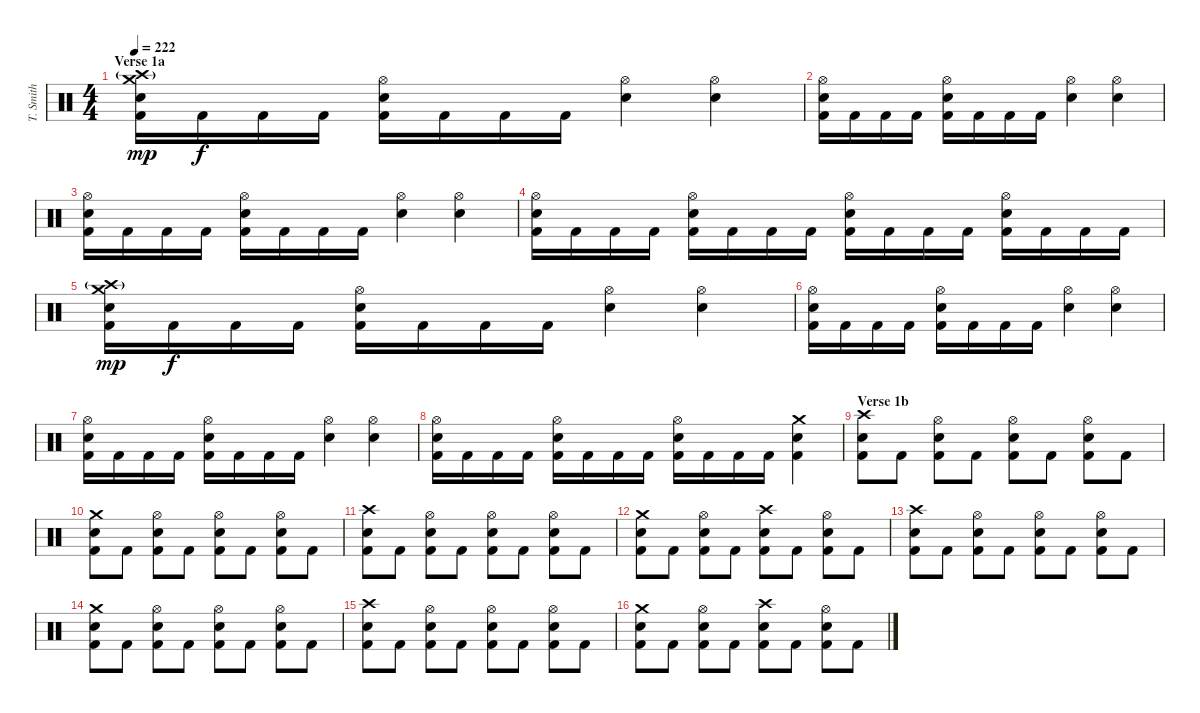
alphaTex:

\track ("T. Smith" "T. Smith") {instrument percussion}
\staff {score}
\articulation defaults
\ts (4 4)
\section ("" "Verse 1a")
\tempo 222
\clef neutral
\ks c
("Crash medium (hit)" "Crash high (hit)"{g} "Electric Snare (hit)" "Kick (hit) 2").16{dy mp} "Kick (hit) 2".16{dy f} "Kick (hit) 2".16 "Kick (hit) 2".16 ("Hi-Hat (open)" "Electric Snare (hit)" "Kick (hit) 2").16 "Kick (hit) 2".16 "Kick (hit) 2".16 "Kick (hit) 2".16 ("Hi-Hat (open)" "Electric Snare (hit)").4 ("Hi-Hat (open)" "Electric Snare (hit)").4 |
("Hi-Hat (open)" "Electric Snare (hit)" "Kick (hit) 2").16 "Kick (hit) 2".16 "Kick (hit) 2".16 "Kick (hit) 2".16 ("Hi-Hat (open)" "Electric Snare (hit)" "Kick (hit) 2").16 "Kick (hit) 2".16 "Kick (hit) 2".16 "Kick (hit) 2".16 ("Hi-Hat (open)" "Electric Snare (hit)").4 ("Hi-Hat (open)" "Electric Snare (hit)").4 |
("Hi-Hat (open)" "Electric Snare (hit)" "Kick (hit) 2").16 "Kick (hit) 2".16 "Kick (hit) 2".16 "Kick (hit) 2".16 ("Hi-Hat (open)" "Electric Snare (hit)" "Kick (hit) 2").16 "Kick (hit) 2".16 "Kick (hit) 2".16 "Kick (hit) 2".16 ("Hi-Hat (open)" "Electric Snare (hit)").4 ("Hi-Hat (open)" "Electric Snare (hit)").4 |
("Hi-Hat (open)" "Electric Snare (hit)" "Kick (hit) 2").16 "Kick (hit) 2".16 "Kick (hit) 2".16 "Kick (hit) 2".16 ("Hi-Hat (open)" "Electric Snare (hit)" "Kick (hit) 2").16 "Kick (hit) 2".16 "Kick (hit) 2".16 "Kick (hit) 2".16 ("Hi-Hat (open)" "Electric Snare (hit)" "Kick (hit) 2").16 "Kick (hit) 2".16 "Kick (hit) 2".16 "Kick (hit) 2".16 ("Hi-Hat (open)" "Electric Snare (hit)" "Kick (hit) 2").16 "Kick (hit) 2".16 "Kick (hit) 2".16 "Kick (hit) 2".16 |
("Crash medium (hit)" "Crash high (hit)"{g} "Electric Snare (hit)" "Kick (hit) 2").16{dy mp} "Kick (hit) 2".16{dy f} "Kick (hit) 2".16 "Kick (hit) 2".16 ("Hi-Hat (open)" "Electric Snare (hit)" "Kick (hit) 2").16 "Kick (hit) 2".16 "Kick (hit) 2".16 "Kick (hit) 2".16 ("Hi-Hat (open)" "Electric Snare (hit)").4 ("Hi-Hat (open)" "Electric Snare (hit)").4 |
("Hi-Hat (open)" "Electric Snare (hit)" "Kick (hit) 2").16 "Kick (hit) 2".16 "Kick (hit) 2".16 "Kick (hit) 2".16 ("Hi-Hat (open)" "Electric Snare (hit)" "Kick (hit) 2").16 "Kick (hit) 2".16 "Kick (hit) 2".16 "Kick (hit) 2".16 ("Hi-Hat (open)" "Electric Snare (hit)").4 ("Hi-Hat (open)" "Electric Snare (hit)").4 |
("Hi-Hat (open)" "Electric Snare (hit)" "Kick (hit) 2").16 "Kick (hit) 2".16 "Kick (hit) 2".16 "Kick (hit) 2".16 ("Hi-Hat (open)" "Electric Snare (hit)" "Kick (hit) 2").16 "Kick (hit) 2".16 "Kick (hit) 2".16 "Kick (hit) 2".16 ("Hi-Hat (open)" "Electric Snare (hit)").4 ("Hi-Hat (open)" "Electric Snare (hit)").4 |
("Hi-Hat (open)" "Electric Snare (hit)" "Kick (hit) 2").16 "Kick (hit) 2".16 "Kick (hit) 2".16 "Kick (hit) 2".16 ("Hi-Hat (open)" "Electric Snare (hit)" "Kick (hit) 2").16 "Kick (hit) 2".16 "Kick (hit) 2".16 "Kick (hit) 2".16 ("Hi-Hat (open)" "Electric Snare (hit)" "Kick (hit) 2").16 "Kick (hit) 2".16 "Kick (hit) 2".16 "Kick (hit) 2".16 ("Crash medium (hit)" "Electric Snare (hit)" "Kick (hit) 2").4 |
\section ("" "Verse 1b")
("Crash high (hit)" "Electric Snare (hit)" "Kick (hit) 2").8 "Kick (hit) 2".8 ("Hi-Hat (open)" "Electric Snare (hit)" "Kick (hit) 2").8 "Kick (hit) 2".8 ("Hi-Hat (open)" "Electric Snare (hit)" "Kick (hit) 2").8 "Kick (hit) 2".8 ("Hi-Hat (open)" "Electric Snare (hit)" "Kick (hit) 2").8 "Kick (hit) 2".8 |
("Crash medium (hit)" "Electric Snare (hit)" "Kick (hit) 2").8 "Kick (hit) 2".8 ("Hi-Hat (open)" "Electric Snare (hit)" "Kick (hit) 2").8 "Kick (hit) 2".8 ("Hi-Hat (open)" "Electric Snare (hit)" "Kick (hit) 2").8 "Kick (hit) 2".8 ("Hi-Hat (open)" "Electric Snare (hit)" "Kick (hit) 2").8 "Kick (hit) 2".8 |
("Crash high (hit)" "Electric Snare (hit)" "Kick (hit) 2").8 "Kick (hit) 2".8 ("Hi-Hat (open)" "Electric Snare (hit)" "Kick (hit) 2").8 "Kick (hit) 2".8 ("Hi-Hat (open)" "Electric Snare (hit)" "Kick (hit) 2").8 "Kick (hit) 2".8 ("Hi-Hat (open)" "Electric Snare (hit)" "Kick (hit) 2").8 "Kick (hit) 2".8 |
("Crash medium (hit)" "Electric Snare (hit)" "Kick (hit) 2").8 "Kick (hit) 2".8 ("Hi-Hat (open)" "Electric Snare (hit)" "Kick (hit) 2").8 "Kick (hit) 2".8 ("Crash high (hit)" "Electric Snare (hit)" "Kick (hit) 2").8 "Kick (hit) 2".8 ("Hi-Hat (open)" "Electric Snare (hit)" "Kick (hit) 2").8 "Kick (hit) 2".8 |
("Crash high (hit)" "Electric Snare (hit)" "Kick (hit) 2").8 "Kick (hit) 2".8 ("Hi-Hat (open)" "Electric Snare (hit)" "Kick (hit) 2").8 "Kick (hit) 2".8 ("Hi-Hat (open)" "Electric Snare (hit)" "Kick (hit) 2").8 "Kick (hit) 2".8 ("Hi-Hat (open)" "Electric Snare (hit)" "Kick (hit) 2").8 "Kick (hit) 2".8 |
("Crash medium (hit)" "Electric Snare (hit)" "Kick (hit) 2").8 "Kick (hit) 2".8 ("Hi-Hat (open)" "Electric Snare (hit)" "Kick (hit) 2").8 "Kick (hit) 2".8 ("Hi-Hat (open)" "Electric Snare (hit)" "Kick (hit) 2").8 "Kick (hit) 2".8 ("Hi-Hat (open)" "Electric Snare (hit)" "Kick (hit) 2").8 "Kick (hit) 2".8 |
("Crash high (hit)" "Electric Snare (hit)" "Kick (hit) 2").8 "Kick (hit) 2".8 ("Hi-Hat (open)" "Electric Snare (hit)" "Kick (hit) 2").8 "Kick (hit) 2".8 ("Hi-Hat (open)" "Electric Snare (hit)" "Kick (hit) 2").8 "Kick (hit) 2".8 ("Hi-Hat (open)" "Electric Snare (hit)" "Kick (hit) 2").8 "Kick (hit) 2".8 |
("Crash medium (hit)" "Electric Snare (hit)" "Kick (hit) 2").8 "Kick (hit) 2".8 ("Hi-Hat (open)" "Electric Snare (hit)" "Kick (hit) 2").8 "Kick (hit) 2".8 ("Crash high (hit)" "Electric Snare (hit)" "Kick (hit) 2").8 "Kick (hit) 2".8 ("Hi-Hat (open)" "Electric Snare (hit)" "Kick (hit) 2").8 "Kick (hit) 2".8
